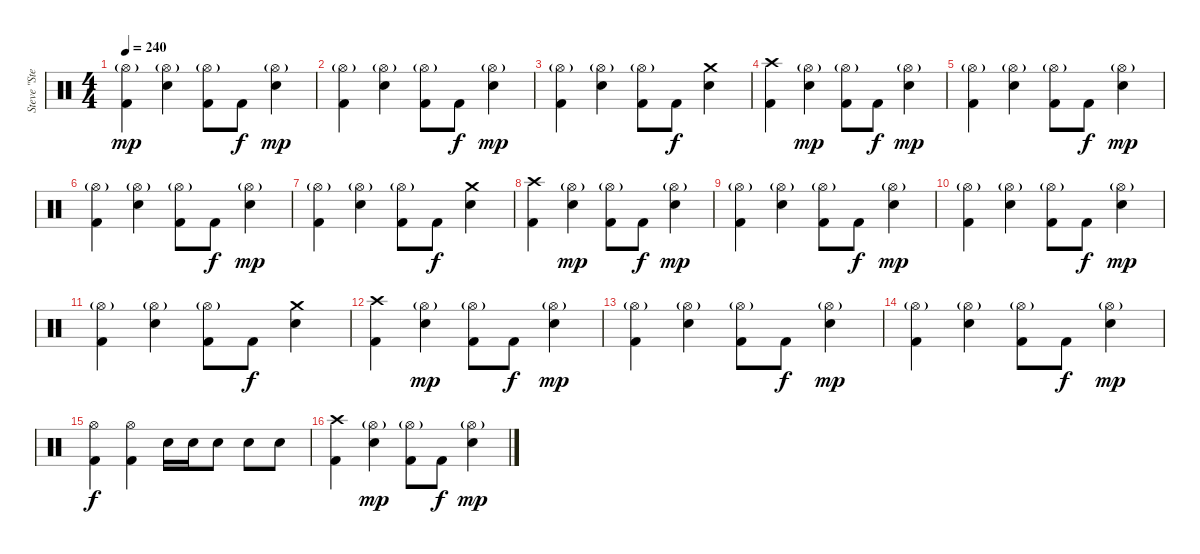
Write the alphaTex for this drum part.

\track ("Steve \"Stevo32\" Jocz " "Steve \"Ste") {instrument percussion}
\staff {score}
\articulation defaults
\ts (4 4)
\tempo 240
\clef neutral
\ks c
("Hi-Hat (open)"{g} "Kick (hit) 2").4{dy mp} ("Hi-Hat (open)"{g} "Electric Snare (hit)").4 ("Hi-Hat (open)"{g} "Kick (hit) 2").8 "Kick (hit) 2".8{dy f} ("Hi-Hat (open)"{g} "Electric Snare (hit)").4{dy mp} |
("Hi-Hat (open)"{g} "Kick (hit) 2").4 ("Hi-Hat (open)"{g} "Electric Snare (hit)").4 ("Hi-Hat (open)"{g} "Kick (hit) 2").8 "Kick (hit) 2".8{dy f} ("Hi-Hat (open)"{g} "Electric Snare (hit)").4{dy mp} |
("Hi-Hat (open)"{g} "Kick (hit) 2").4 ("Hi-Hat (open)"{g} "Electric Snare (hit)").4 ("Hi-Hat (open)"{g} "Kick (hit) 2").8 "Kick (hit) 2".8{dy f} ("Crash medium (hit)" "Electric Snare (hit)").4 |
("Crash high (hit)" "Kick (hit) 2").4 ("Hi-Hat (open)"{g} "Electric Snare (hit)").4{dy mp} ("Hi-Hat (open)"{g} "Kick (hit) 2").8 "Kick (hit) 2".8{dy f} ("Hi-Hat (open)"{g} "Electric Snare (hit)").4{dy mp} |
("Hi-Hat (open)"{g} "Kick (hit) 2").4 ("Hi-Hat (open)"{g} "Electric Snare (hit)").4 ("Hi-Hat (open)"{g} "Kick (hit) 2").8 "Kick (hit) 2".8{dy f} ("Hi-Hat (open)"{g} "Electric Snare (hit)").4{dy mp} |
("Hi-Hat (open)"{g} "Kick (hit) 2").4 ("Hi-Hat (open)"{g} "Electric Snare (hit)").4 ("Hi-Hat (open)"{g} "Kick (hit) 2").8 "Kick (hit) 2".8{dy f} ("Hi-Hat (open)"{g} "Electric Snare (hit)").4{dy mp} |
("Hi-Hat (open)"{g} "Kick (hit) 2").4 ("Hi-Hat (open)"{g} "Electric Snare (hit)").4 ("Hi-Hat (open)"{g} "Kick (hit) 2").8 "Kick (hit) 2".8{dy f} ("Crash medium (hit)" "Electric Snare (hit)").4 |
("Crash high (hit)" "Kick (hit) 2").4 ("Hi-Hat (open)"{g} "Electric Snare (hit)").4{dy mp} ("Hi-Hat (open)"{g} "Kick (hit) 2").8 "Kick (hit) 2".8{dy f} ("Hi-Hat (open)"{g} "Electric Snare (hit)").4{dy mp} |
("Hi-Hat (open)"{g} "Kick (hit) 2").4 ("Hi-Hat (open)"{g} "Electric Snare (hit)").4 ("Hi-Hat (open)"{g} "Kick (hit) 2").8 "Kick (hit) 2".8{dy f} ("Hi-Hat (open)"{g} "Electric Snare (hit)").4{dy mp} |
("Hi-Hat (open)"{g} "Kick (hit) 2").4 ("Hi-Hat (open)"{g} "Electric Snare (hit)").4 ("Hi-Hat (open)"{g} "Kick (hit) 2").8 "Kick (hit) 2".8{dy f} ("Hi-Hat (open)"{g} "Electric Snare (hit)").4{dy mp} |
("Hi-Hat (open)"{g} "Kick (hit) 2").4 ("Hi-Hat (open)"{g} "Electric Snare (hit)").4 ("Hi-Hat (open)"{g} "Kick (hit) 2").8 "Kick (hit) 2".8{dy f} ("Crash medium (hit)" "Electric Snare (hit)").4 |
("Crash high (hit)" "Kick (hit) 2").4 ("Hi-Hat (open)"{g} "Electric Snare (hit)").4{dy mp} ("Hi-Hat (open)"{g} "Kick (hit) 2").8 "Kick (hit) 2".8{dy f} ("Hi-Hat (open)"{g} "Electric Snare (hit)").4{dy mp} |
("Hi-Hat (open)"{g} "Kick (hit) 2").4 ("Hi-Hat (open)"{g} "Electric Snare (hit)").4 ("Hi-Hat (open)"{g} "Kick (hit) 2").8 "Kick (hit) 2".8{dy f} ("Hi-Hat (open)"{g} "Electric Snare (hit)").4{dy mp} |
("Hi-Hat (open)"{g} "Kick (hit) 2").4 ("Hi-Hat (open)"{g} "Electric Snare (hit)").4 ("Hi-Hat (open)"{g} "Kick (hit) 2").8 "Kick (hit) 2".8{dy f} ("Hi-Hat (open)"{g} "Electric Snare (hit)").4{dy mp} |
("Hi-Hat (open)" "Kick (hit) 2").4{dy f} ("Hi-Hat (open)" "Kick (hit) 2").4 "Electric Snare (hit)".16 "Electric Snare (hit)".16 "Electric Snare (hit)".8 "Electric Snare (hit)".8 "Electric Snare (hit)".8 |
("Crash high (hit)" "Kick (hit) 2").4 ("Hi-Hat (open)"{g} "Electric Snare (hit)").4{dy mp} ("Hi-Hat (open)"{g} "Kick (hit) 2").8 "Kick (hit) 2".8{dy f} ("Hi-Hat (open)"{g} "Electric Snare (hit)").4{dy mp}
